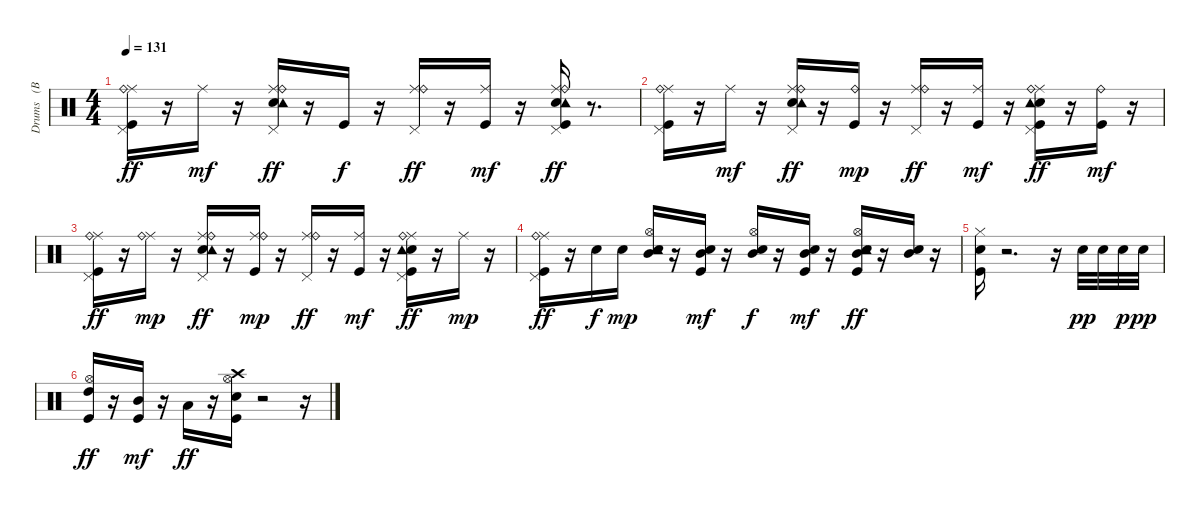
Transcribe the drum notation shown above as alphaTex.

\track ("Drums   (BB)" "Drums   (B") {instrument percussion}
\staff {score}
\articulation defaults
\ts (4 4)
\tempo 131
\clef neutral
\ks c
("Kick (hit)" "Pedal Hi-Hat (hit)" "Ride (middle)" "Ride (bell)").16{dy ff} r.16 "Ride (middle)".16{dy mf} r.16 ("Snare (hit) 2" "Tambourine (hit)" "Pedal Hi-Hat (hit)" "Ride (middle)" "Ride (bell)").16{dy ff} r.16 "Kick (hit)".16{dy f} r.16 ("Pedal Hi-Hat (hit)" "Ride (middle)" "Ride (bell)").16{dy ff} r.16 ("Kick (hit)" "Ride (middle)").16{dy mf} r.16 ("Kick (hit)" "Snare (hit) 2" "Tambourine (hit)" "Pedal Hi-Hat (hit)" "Ride (middle)" "Ride (bell)").16{dy ff} r.8{d} |
("Kick (hit)" "Pedal Hi-Hat (hit)" "Ride (middle)" "Ride (bell)").16 r.16 "Ride (middle)".16{dy mf} r.16 ("Snare (hit) 2" "Tambourine (hit)" "Pedal Hi-Hat (hit)" "Ride (middle)" "Ride (bell)").16{dy ff} r.16 ("Kick (hit)" "Ride (bell)").16{dy mp} r.16 ("Pedal Hi-Hat (hit)" "Ride (middle)" "Ride (bell)").16{dy ff} r.16 ("Kick (hit)" "Ride (middle)").16{dy mf} r.16 ("Kick (hit)" "Snare (hit) 2" "Tambourine (hit)" "Pedal Hi-Hat (hit)" "Ride (middle)" "Ride (bell)").16{dy ff} r.16 ("Kick (hit)" "Ride (bell)").16{dy mf} r.16 |
("Kick (hit)" "Pedal Hi-Hat (hit)" "Ride (middle)" "Ride (bell)").16{dy ff} r.16 ("Ride (middle)" "Ride (bell)").16{dy mp} r.16 ("Snare (hit) 2" "Tambourine (hit)" "Pedal Hi-Hat (hit)" "Ride (middle)" "Ride (bell)").16{dy ff} r.16 ("Kick (hit)" "Ride (middle)" "Ride (bell)").16{dy mp} r.16 ("Pedal Hi-Hat (hit)" "Ride (middle)" "Ride (bell)").16{dy ff} r.16 ("Kick (hit)" "Ride (middle)").16{dy mf} r.16 ("Kick (hit)" "Snare (hit) 2" "Tambourine (hit)" "Pedal Hi-Hat (hit)" "Ride (middle)" "Ride (bell)").16{dy ff} r.16 "Ride (middle)".16{dy mp} r.16 |
("Kick (hit)" "Pedal Hi-Hat (hit)" "Ride (middle)" "Ride (bell)").16{dy ff} r.16 "Snare (hit) 2".16{dy f} "Snare (hit) 2".16{dy mp} ("Snare (hit) 2" "Tambourine (hit)" "Hi-Hat (open)" "Mid Tom (hit)").16 r.16 ("Kick (hit)" "Snare (hit) 2" "Mid Tom (hit)").16{dy mf} r.16 ("Snare (hit) 2" "Hi-Hat (open)" "Mid Tom (hit)").16{dy f} r.16 ("Kick (hit)" "Snare (hit) 2" "Mid Tom (hit)").16{dy mf} r.16 ("Kick (hit)" "Snare (hit) 2" "Tambourine (hit)" "Hi-Hat (open)" "Mid Tom (hit)").16{dy ff} r.16 ("Snare (hit) 2" "Mid Tom (hit)").16 r.16 |
("Kick (hit)" "Snare (hit) 2" "Hi-Hat (closed)").16 r.2{d} r.16 "Snare (hit) 2".32{dy pp} "Snare (hit) 2".32 "Snare (hit) 2".32{dy p} "Snare (hit) 2".32{dy pp} |
("Kick (hit)" "Hi-Hat (open)" "High Tom (hit)").16{dy ff} r.16 ("Kick (hit)" "Mid Tom (hit)").16{dy mf} r.16 "Low Tom (hit)".16{dy ff} r.16 ("Kick (hit)" "Snare (hit) 2" "Hi-Hat (open)" "Crash high (hit)").16 r.2 r.16
